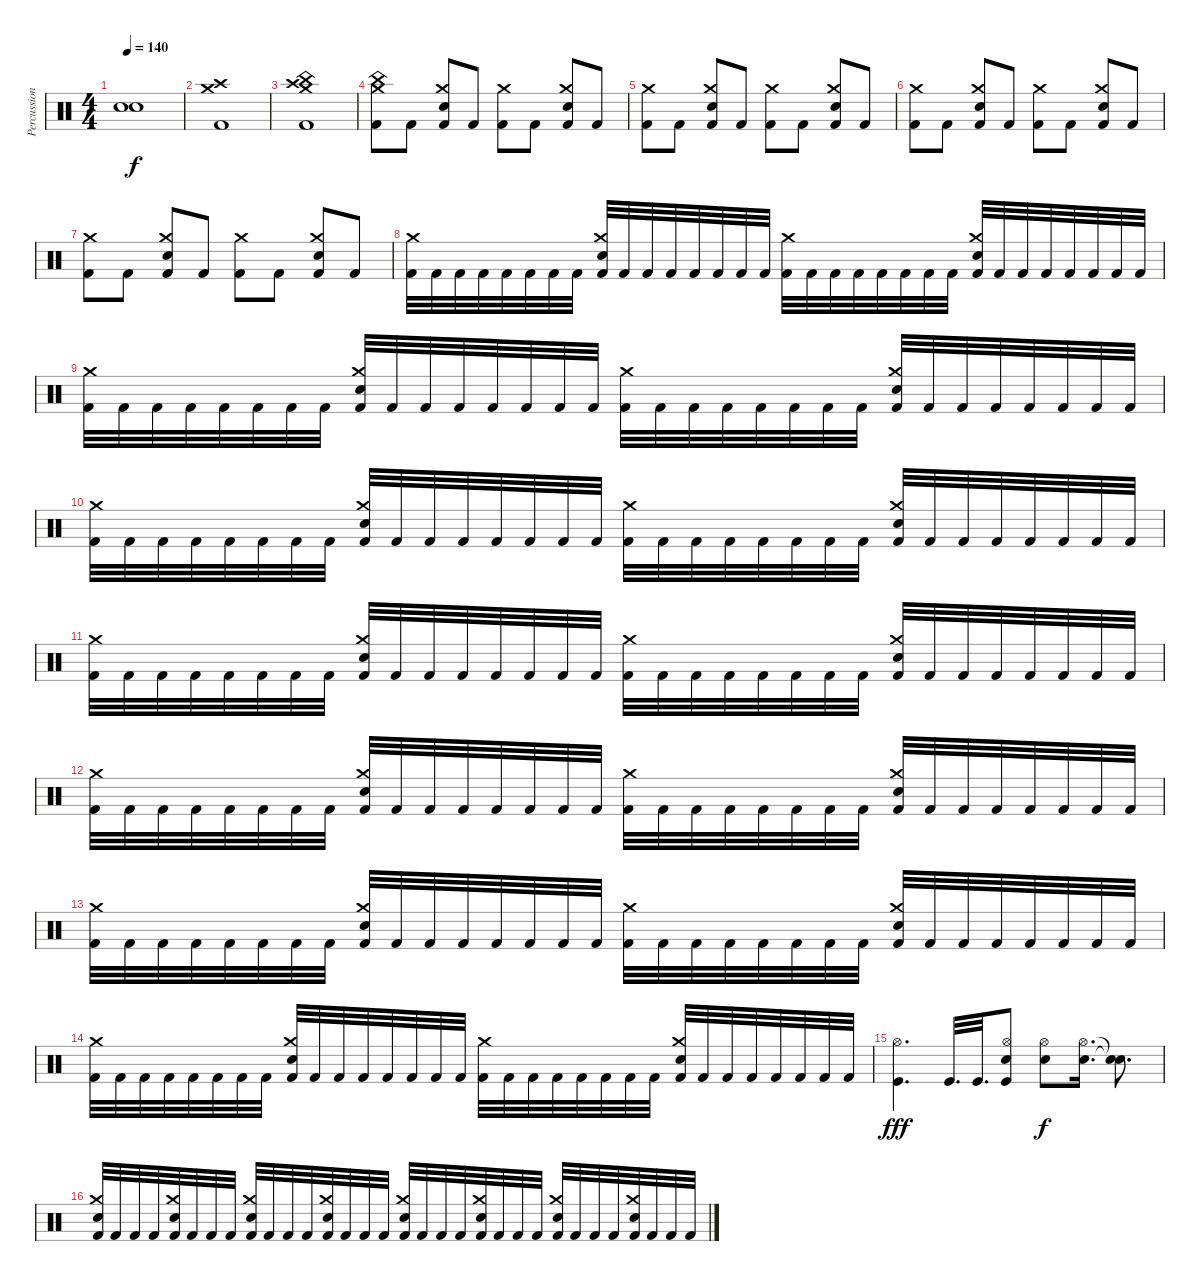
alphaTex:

\track ("Percussion" "Percussion") {instrument percussion}
\staff {score}
\articulation defaults
\ts (4 4)
\tempo 140
\clef neutral
\ks c
("Snare (hit)"{t} "Snare (hit)"{t}).1{dy f} |
("Kick (hit) 2" "Crash high (hit)" "Crash medium (hit)").1 |
("Kick (hit) 2" "Crash high (hit)" "Crash medium (hit)" "China (hit)").1 |
("Crash medium (hit)" "China (hit)" "Kick (hit) 2").8 "Kick (hit) 2".8 ("Crash medium (hit)" "Electric Snare (hit)" "Kick (hit) 2").8 "Kick (hit) 2".8 ("Crash medium (hit)" "Kick (hit) 2").8 "Kick (hit) 2".8 ("Crash medium (hit)" "Electric Snare (hit)" "Kick (hit) 2").8 "Kick (hit) 2".8 |
("Crash medium (hit)" "Kick (hit) 2").8 "Kick (hit) 2".8 ("Crash medium (hit)" "Electric Snare (hit)" "Kick (hit) 2").8 "Kick (hit) 2".8 ("Crash medium (hit)" "Kick (hit) 2").8 "Kick (hit) 2".8 ("Crash medium (hit)" "Electric Snare (hit)" "Kick (hit) 2").8 "Kick (hit) 2".8 |
("Crash medium (hit)" "Kick (hit) 2").8 "Kick (hit) 2".8 ("Crash medium (hit)" "Electric Snare (hit)" "Kick (hit) 2").8 "Kick (hit) 2".8 ("Crash medium (hit)" "Kick (hit) 2").8 "Kick (hit) 2".8 ("Crash medium (hit)" "Electric Snare (hit)" "Kick (hit) 2").8 "Kick (hit) 2".8 |
("Crash medium (hit)" "Kick (hit) 2").8 "Kick (hit) 2".8 ("Crash medium (hit)" "Electric Snare (hit)" "Kick (hit) 2").8 "Kick (hit) 2".8 ("Crash medium (hit)" "Kick (hit) 2").8 "Kick (hit) 2".8 ("Crash medium (hit)" "Electric Snare (hit)" "Kick (hit) 2").8 "Kick (hit) 2".8 |
("Crash medium (hit)" "Kick (hit) 2").32 "Kick (hit) 2".32 "Kick (hit) 2".32 "Kick (hit) 2".32 "Kick (hit) 2".32 "Kick (hit) 2".32 "Kick (hit) 2".32 "Kick (hit) 2".32 ("Crash medium (hit)" "Electric Snare (hit)" "Kick (hit) 2").32 "Kick (hit) 2".32 "Kick (hit) 2".32 "Kick (hit) 2".32 "Kick (hit) 2".32 "Kick (hit) 2".32 "Kick (hit) 2".32 "Kick (hit) 2".32 ("Crash medium (hit)" "Kick (hit) 2").32 "Kick (hit) 2".32 "Kick (hit) 2".32 "Kick (hit) 2".32 "Kick (hit) 2".32 "Kick (hit) 2".32 "Kick (hit) 2".32 "Kick (hit) 2".32 ("Crash medium (hit)" "Electric Snare (hit)" "Kick (hit) 2").32 "Kick (hit) 2".32 "Kick (hit) 2".32 "Kick (hit) 2".32 "Kick (hit) 2".32 "Kick (hit) 2".32 "Kick (hit) 2".32 "Kick (hit) 2".32 |
("Crash medium (hit)" "Kick (hit) 2").32 "Kick (hit) 2".32 "Kick (hit) 2".32 "Kick (hit) 2".32 "Kick (hit) 2".32 "Kick (hit) 2".32 "Kick (hit) 2".32 "Kick (hit) 2".32 ("Crash medium (hit)" "Electric Snare (hit)" "Kick (hit) 2").32 "Kick (hit) 2".32 "Kick (hit) 2".32 "Kick (hit) 2".32 "Kick (hit) 2".32 "Kick (hit) 2".32 "Kick (hit) 2".32 "Kick (hit) 2".32 ("Crash medium (hit)" "Kick (hit) 2").32 "Kick (hit) 2".32 "Kick (hit) 2".32 "Kick (hit) 2".32 "Kick (hit) 2".32 "Kick (hit) 2".32 "Kick (hit) 2".32 "Kick (hit) 2".32 ("Crash medium (hit)" "Electric Snare (hit)" "Kick (hit) 2").32 "Kick (hit) 2".32 "Kick (hit) 2".32 "Kick (hit) 2".32 "Kick (hit) 2".32 "Kick (hit) 2".32 "Kick (hit) 2".32 "Kick (hit) 2".32 |
("Crash medium (hit)" "Kick (hit) 2").32 "Kick (hit) 2".32 "Kick (hit) 2".32 "Kick (hit) 2".32 "Kick (hit) 2".32 "Kick (hit) 2".32 "Kick (hit) 2".32 "Kick (hit) 2".32 ("Crash medium (hit)" "Electric Snare (hit)" "Kick (hit) 2").32 "Kick (hit) 2".32 "Kick (hit) 2".32 "Kick (hit) 2".32 "Kick (hit) 2".32 "Kick (hit) 2".32 "Kick (hit) 2".32 "Kick (hit) 2".32 ("Crash medium (hit)" "Kick (hit) 2").32 "Kick (hit) 2".32 "Kick (hit) 2".32 "Kick (hit) 2".32 "Kick (hit) 2".32 "Kick (hit) 2".32 "Kick (hit) 2".32 "Kick (hit) 2".32 ("Crash medium (hit)" "Electric Snare (hit)" "Kick (hit) 2").32 "Kick (hit) 2".32 "Kick (hit) 2".32 "Kick (hit) 2".32 "Kick (hit) 2".32 "Kick (hit) 2".32 "Kick (hit) 2".32 "Kick (hit) 2".32 |
("Crash medium (hit)" "Kick (hit) 2").32 "Kick (hit) 2".32 "Kick (hit) 2".32 "Kick (hit) 2".32 "Kick (hit) 2".32 "Kick (hit) 2".32 "Kick (hit) 2".32 "Kick (hit) 2".32 ("Crash medium (hit)" "Electric Snare (hit)" "Kick (hit) 2").32 "Kick (hit) 2".32 "Kick (hit) 2".32 "Kick (hit) 2".32 "Kick (hit) 2".32 "Kick (hit) 2".32 "Kick (hit) 2".32 "Kick (hit) 2".32 ("Crash medium (hit)" "Kick (hit) 2").32 "Kick (hit) 2".32 "Kick (hit) 2".32 "Kick (hit) 2".32 "Kick (hit) 2".32 "Kick (hit) 2".32 "Kick (hit) 2".32 "Kick (hit) 2".32 ("Crash medium (hit)" "Electric Snare (hit)" "Kick (hit) 2").32 "Kick (hit) 2".32 "Kick (hit) 2".32 "Kick (hit) 2".32 "Kick (hit) 2".32 "Kick (hit) 2".32 "Kick (hit) 2".32 "Kick (hit) 2".32 |
("Crash medium (hit)" "Kick (hit) 2").32 "Kick (hit) 2".32 "Kick (hit) 2".32 "Kick (hit) 2".32 "Kick (hit) 2".32 "Kick (hit) 2".32 "Kick (hit) 2".32 "Kick (hit) 2".32 ("Crash medium (hit)" "Electric Snare (hit)" "Kick (hit) 2").32 "Kick (hit) 2".32 "Kick (hit) 2".32 "Kick (hit) 2".32 "Kick (hit) 2".32 "Kick (hit) 2".32 "Kick (hit) 2".32 "Kick (hit) 2".32 ("Crash medium (hit)" "Kick (hit) 2").32 "Kick (hit) 2".32 "Kick (hit) 2".32 "Kick (hit) 2".32 "Kick (hit) 2".32 "Kick (hit) 2".32 "Kick (hit) 2".32 "Kick (hit) 2".32 ("Crash medium (hit)" "Electric Snare (hit)" "Kick (hit) 2").32 "Kick (hit) 2".32 "Kick (hit) 2".32 "Kick (hit) 2".32 "Kick (hit) 2".32 "Kick (hit) 2".32 "Kick (hit) 2".32 "Kick (hit) 2".32 |
("Crash medium (hit)" "Kick (hit) 2").32 "Kick (hit) 2".32 "Kick (hit) 2".32 "Kick (hit) 2".32 "Kick (hit) 2".32 "Kick (hit) 2".32 "Kick (hit) 2".32 "Kick (hit) 2".32 ("Crash medium (hit)" "Electric Snare (hit)" "Kick (hit) 2").32 "Kick (hit) 2".32 "Kick (hit) 2".32 "Kick (hit) 2".32 "Kick (hit) 2".32 "Kick (hit) 2".32 "Kick (hit) 2".32 "Kick (hit) 2".32 ("Crash medium (hit)" "Kick (hit) 2").32 "Kick (hit) 2".32 "Kick (hit) 2".32 "Kick (hit) 2".32 "Kick (hit) 2".32 "Kick (hit) 2".32 "Kick (hit) 2".32 "Kick (hit) 2".32 ("Crash medium (hit)" "Electric Snare (hit)" "Kick (hit) 2").32 "Kick (hit) 2".32 "Kick (hit) 2".32 "Kick (hit) 2".32 "Kick (hit) 2".32 "Kick (hit) 2".32 "Kick (hit) 2".32 "Kick (hit) 2".32 |
("Crash medium (hit)" "Kick (hit) 2").32 "Kick (hit) 2".32 "Kick (hit) 2".32 "Kick (hit) 2".32 "Kick (hit) 2".32 "Kick (hit) 2".32 "Kick (hit) 2".32 "Kick (hit) 2".32 ("Crash medium (hit)" "Electric Snare (hit)" "Kick (hit) 2").32 "Kick (hit) 2".32 "Kick (hit) 2".32 "Kick (hit) 2".32 "Kick (hit) 2".32 "Kick (hit) 2".32 "Kick (hit) 2".32 "Kick (hit) 2".32 ("Crash medium (hit)" "Kick (hit) 2").32 "Kick (hit) 2".32 "Kick (hit) 2".32 "Kick (hit) 2".32 "Kick (hit) 2".32 "Kick (hit) 2".32 "Kick (hit) 2".32 "Kick (hit) 2".32 ("Crash medium (hit)" "Electric Snare (hit)" "Kick (hit) 2").32 "Kick (hit) 2".32 "Kick (hit) 2".32 "Kick (hit) 2".32 "Kick (hit) 2".32 "Kick (hit) 2".32 "Kick (hit) 2".32 "Kick (hit) 2".32 |
("Hi-Hat (open)" "Kick (hit)").4{d dy fff} "Kick (hit)".32{d} "Kick (hit)".32{d} ("Hi-Hat (open)" "Electric Snare (hit)" "Kick (hit)").8 ("Hi-Hat (open)" "Electric Snare (hit)").8{dy f} ("Hi-Hat (open)" "Electric Snare (hit)").16{d} ("Snare (hit)"{t} "Snare (hit)"{t}).8{d} |
("Crash medium (hit)" "Electric Snare (hit)" "Kick (hit) 2").32 "Kick (hit) 2".32 "Kick (hit) 2".32 "Kick (hit) 2".32 ("Crash medium (hit)" "Electric Snare (hit)" "Kick (hit) 2").32 "Kick (hit) 2".32 "Kick (hit) 2".32 "Kick (hit) 2".32 ("Crash medium (hit)" "Electric Snare (hit)" "Kick (hit) 2").32 "Kick (hit) 2".32 "Kick (hit) 2".32 "Kick (hit) 2".32 ("Crash medium (hit)" "Electric Snare (hit)" "Kick (hit) 2").32 "Kick (hit) 2".32 "Kick (hit) 2".32 "Kick (hit) 2".32 ("Crash medium (hit)" "Electric Snare (hit)" "Kick (hit) 2").32 "Kick (hit) 2".32 "Kick (hit) 2".32 "Kick (hit) 2".32 ("Crash medium (hit)" "Electric Snare (hit)" "Kick (hit) 2").32 "Kick (hit) 2".32 "Kick (hit) 2".32 "Kick (hit) 2".32 ("Crash medium (hit)" "Electric Snare (hit)" "Kick (hit) 2").32 "Kick (hit) 2".32 "Kick (hit) 2".32 "Kick (hit) 2".32 ("Crash medium (hit)" "Electric Snare (hit)" "Kick (hit) 2").32 "Kick (hit) 2".32 "Kick (hit) 2".32 "Kick (hit) 2".32
